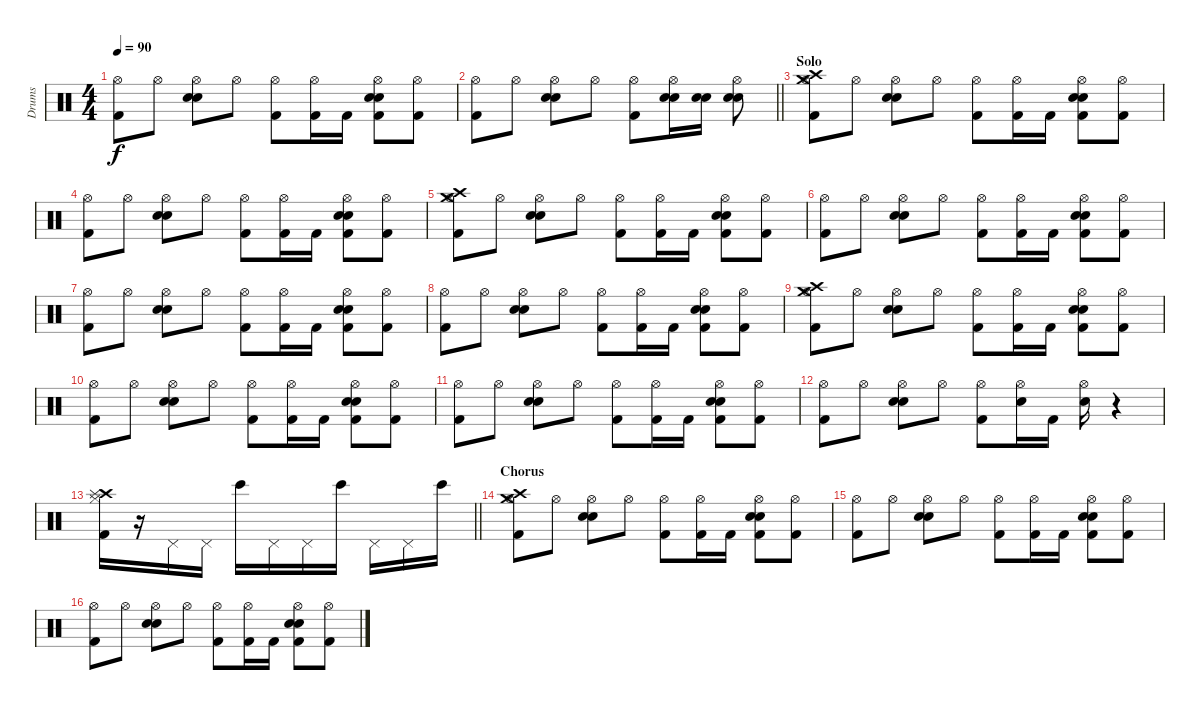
\track ("Drums" "Drums") {instrument percussion}
\staff {score}
\articulation defaults
\ts (4 4)
\tempo 90
\clef neutral
\ks c
("Hi-Hat (open)" "Kick (hit) 2").8{dy f} "Hi-Hat (open)".8 ("Hi-Hat (open)" "Electric Snare (hit)" "Electric Snare (hit)").8 "Hi-Hat (open)".8 ("Hi-Hat (open)" "Kick (hit) 2").8 ("Hi-Hat (open)" "Kick (hit) 2").16 "Kick (hit) 2".16 ("Hi-Hat (open)" "Electric Snare (hit)" "Electric Snare (hit)" "Kick (hit) 2").8 ("Hi-Hat (open)" "Kick (hit) 2").8 |
\barLineRight lightlight
("Hi-Hat (open)" "Kick (hit) 2").8 "Hi-Hat (open)".8 ("Hi-Hat (open)" "Electric Snare (hit)" "Electric Snare (hit)").8 "Hi-Hat (open)".8 ("Hi-Hat (open)" "Kick (hit) 2").8 ("Hi-Hat (open)" "Electric Snare (hit)" "Electric Snare (hit)").16 ("Electric Snare (hit)" "Electric Snare (hit)").16 ("Hi-Hat (open)" "Electric Snare (hit)" "Electric Snare (hit)").8 |
\section ("" "Solo")
("Hi-Hat (open)" "Crash high (hit)" "Crash medium (hit)" "Kick (hit) 2").8 "Hi-Hat (open)".8 ("Hi-Hat (open)" "Electric Snare (hit)" "Electric Snare (hit)").8 "Hi-Hat (open)".8 ("Hi-Hat (open)" "Kick (hit) 2").8 ("Hi-Hat (open)" "Kick (hit) 2").16 "Kick (hit) 2".16 ("Hi-Hat (open)" "Electric Snare (hit)" "Electric Snare (hit)" "Kick (hit) 2").8 ("Hi-Hat (open)" "Kick (hit) 2").8 |
("Hi-Hat (open)" "Kick (hit) 2").8 "Hi-Hat (open)".8 ("Hi-Hat (open)" "Electric Snare (hit)" "Electric Snare (hit)").8 "Hi-Hat (open)".8 ("Hi-Hat (open)" "Kick (hit) 2").8 ("Hi-Hat (open)" "Kick (hit) 2").16 "Kick (hit) 2".16 ("Hi-Hat (open)" "Electric Snare (hit)" "Electric Snare (hit)" "Kick (hit) 2").8 ("Hi-Hat (open)" "Kick (hit) 2").8 |
("Hi-Hat (open)" "Crash high (hit)" "Crash medium (hit)" "Kick (hit) 2").8 "Hi-Hat (open)".8 ("Hi-Hat (open)" "Electric Snare (hit)" "Electric Snare (hit)").8 "Hi-Hat (open)".8 ("Hi-Hat (open)" "Kick (hit) 2").8 ("Hi-Hat (open)" "Kick (hit) 2").16 "Kick (hit) 2".16 ("Hi-Hat (open)" "Electric Snare (hit)" "Electric Snare (hit)" "Kick (hit) 2").8 ("Hi-Hat (open)" "Kick (hit) 2").8 |
("Hi-Hat (open)" "Kick (hit) 2").8 "Hi-Hat (open)".8 ("Hi-Hat (open)" "Electric Snare (hit)" "Electric Snare (hit)").8 "Hi-Hat (open)".8 ("Hi-Hat (open)" "Kick (hit) 2").8 ("Hi-Hat (open)" "Kick (hit) 2").16 "Kick (hit) 2".16 ("Hi-Hat (open)" "Electric Snare (hit)" "Electric Snare (hit)" "Kick (hit) 2").8 ("Hi-Hat (open)" "Kick (hit) 2").8 |
("Hi-Hat (open)" "Kick (hit) 2").8 "Hi-Hat (open)".8 ("Hi-Hat (open)" "Electric Snare (hit)" "Electric Snare (hit)").8 "Hi-Hat (open)".8 ("Hi-Hat (open)" "Kick (hit) 2").8 ("Hi-Hat (open)" "Kick (hit) 2").16 "Kick (hit) 2".16 ("Hi-Hat (open)" "Electric Snare (hit)" "Electric Snare (hit)" "Kick (hit) 2").8 ("Hi-Hat (open)" "Kick (hit) 2").8 |
("Hi-Hat (open)" "Kick (hit) 2").8 "Hi-Hat (open)".8 ("Hi-Hat (open)" "Electric Snare (hit)" "Electric Snare (hit)").8 "Hi-Hat (open)".8 ("Hi-Hat (open)" "Kick (hit) 2").8 ("Hi-Hat (open)" "Kick (hit) 2").16 "Kick (hit) 2".16 ("Hi-Hat (open)" "Electric Snare (hit)" "Electric Snare (hit)" "Kick (hit) 2").8 ("Hi-Hat (open)" "Kick (hit) 2").8 |
("Hi-Hat (open)" "Crash high (hit)" "Crash medium (hit)" "Kick (hit) 2").8 "Hi-Hat (open)".8 ("Hi-Hat (open)" "Electric Snare (hit)" "Electric Snare (hit)").8 "Hi-Hat (open)".8 ("Hi-Hat (open)" "Kick (hit) 2").8 ("Hi-Hat (open)" "Kick (hit) 2").16 "Kick (hit) 2".16 ("Hi-Hat (open)" "Electric Snare (hit)" "Electric Snare (hit)" "Kick (hit) 2").8 ("Hi-Hat (open)" "Kick (hit) 2").8 |
("Hi-Hat (open)" "Kick (hit) 2").8 "Hi-Hat (open)".8 ("Hi-Hat (open)" "Electric Snare (hit)" "Electric Snare (hit)").8 "Hi-Hat (open)".8 ("Hi-Hat (open)" "Kick (hit) 2").8 ("Hi-Hat (open)" "Kick (hit) 2").16 "Kick (hit) 2".16 ("Hi-Hat (open)" "Electric Snare (hit)" "Electric Snare (hit)" "Kick (hit) 2").8 ("Hi-Hat (open)" "Kick (hit) 2").8 |
("Hi-Hat (open)" "Kick (hit) 2").8 "Hi-Hat (open)".8 ("Hi-Hat (open)" "Electric Snare (hit)" "Electric Snare (hit)").8 "Hi-Hat (open)".8 ("Hi-Hat (open)" "Kick (hit) 2").8 ("Hi-Hat (open)" "Kick (hit) 2").16 "Kick (hit) 2".16 ("Hi-Hat (open)" "Electric Snare (hit)" "Electric Snare (hit)" "Kick (hit) 2").8 ("Hi-Hat (open)" "Kick (hit) 2").8 |
("Hi-Hat (open)" "Kick (hit) 2").8 "Hi-Hat (open)".8 ("Hi-Hat (open)" "Electric Snare (hit)" "Electric Snare (hit)").8 "Hi-Hat (open)".8 ("Hi-Hat (open)" "Kick (hit) 2").8 ("Hi-Hat (open)" "Electric Snare (hit)").16 "Kick (hit) 2".16 ("Hi-Hat (open)" "Electric Snare (hit)").16 r.4 |
\barLineRight lightlight
("Crash high (hit)" "Splash (hit)" "Kick (hit) 2" "Hi-Hat (closed)").16 r.16 "Pedal Hi-Hat (hit)".16 "Pedal Hi-Hat (hit)".16 "Bongo High (hit)".16 "Pedal Hi-Hat (hit)".16 "Pedal Hi-Hat (hit)".16 "Bongo High (hit)".16 "Pedal Hi-Hat (hit)".16 "Pedal Hi-Hat (hit)".16 "Bongo High (hit)".16 |
\section ("" "Chorus")
("Hi-Hat (open)" "Crash high (hit)" "Crash medium (hit)" "Kick (hit) 2").8 "Hi-Hat (open)".8 ("Hi-Hat (open)" "Electric Snare (hit)" "Electric Snare (hit)").8 "Hi-Hat (open)".8 ("Hi-Hat (open)" "Kick (hit) 2").8 ("Hi-Hat (open)" "Kick (hit) 2").16 "Kick (hit) 2".16 ("Hi-Hat (open)" "Electric Snare (hit)" "Electric Snare (hit)" "Kick (hit) 2").8 ("Hi-Hat (open)" "Kick (hit) 2").8 |
("Hi-Hat (open)" "Kick (hit) 2").8 "Hi-Hat (open)".8 ("Hi-Hat (open)" "Electric Snare (hit)" "Electric Snare (hit)").8 "Hi-Hat (open)".8 ("Hi-Hat (open)" "Kick (hit) 2").8 ("Hi-Hat (open)" "Kick (hit) 2").16 "Kick (hit) 2".16 ("Hi-Hat (open)" "Electric Snare (hit)" "Electric Snare (hit)" "Kick (hit) 2").8 ("Hi-Hat (open)" "Kick (hit) 2").8 |
("Hi-Hat (open)" "Kick (hit) 2").8 "Hi-Hat (open)".8 ("Hi-Hat (open)" "Electric Snare (hit)" "Electric Snare (hit)").8 "Hi-Hat (open)".8 ("Hi-Hat (open)" "Kick (hit) 2").8 ("Hi-Hat (open)" "Kick (hit) 2").16 "Kick (hit) 2".16 ("Hi-Hat (open)" "Electric Snare (hit)" "Electric Snare (hit)" "Kick (hit) 2").8 ("Hi-Hat (open)" "Kick (hit) 2").8
